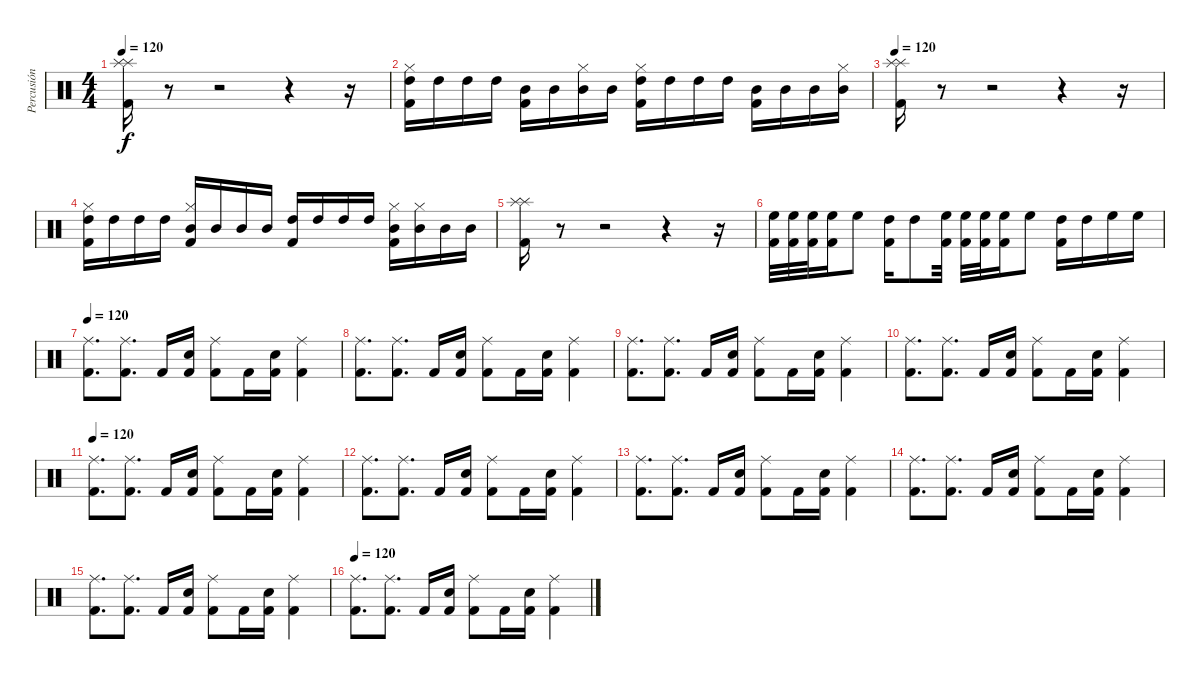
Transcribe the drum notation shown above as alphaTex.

\track ("Percusión" "Percusión") {instrument percussion}
\staff {score}
\articulation defaults
\ts (4 4)
\tempo 120
\clef neutral
\ks c
("Kick (hit) 2" "Splash (hit)" "Splash (hit)").16{dy f} r.8 r.2 r.4 r.16 |
("High Tom (hit)" "Kick (hit) 2" "Hi-Hat (closed)").16 "High Tom (hit)".16 "High Tom (hit)".16 "High Tom (hit)".16 ("Mid Tom (hit)" "Kick (hit) 2").16 "Mid Tom (hit)".16 ("Mid Tom (hit)" "Hi-Hat (closed)").16 "Mid Tom (hit)".16 ("High Tom (hit)" "Kick (hit) 2" "Hi-Hat (closed)").16 "High Tom (hit)".16 "High Tom (hit)".16 "High Tom (hit)".16 ("Mid Tom (hit)" "Kick (hit) 2").16 "Mid Tom (hit)".16 "Mid Tom (hit)".16 ("Mid Tom (hit)" "Hi-Hat (closed)").16 |
\tempo 120
("Kick (hit) 2" "Splash (hit)" "Splash (hit)").16 r.8 r.2 r.4 r.16 |
("High Tom (hit)" "Kick (hit) 2" "Hi-Hat (closed)").16 "High Tom (hit)".16 "High Tom (hit)".16 "High Tom (hit)".16 ("Mid Tom (hit)" "Hi-Hat (closed)" "Kick (hit) 2").16 "Mid Tom (hit)".16 "Mid Tom (hit)".16 "Mid Tom (hit)".16 ("High Tom (hit)" "Kick (hit) 2").16 "High Tom (hit)".16 "High Tom (hit)".16 "High Tom (hit)".16 ("Mid Tom (hit)" "Kick (hit) 2" "Hi-Hat (closed)").16 ("Mid Tom (hit)" "Hi-Hat (closed)").16 "Mid Tom (hit)".16 "Mid Tom (hit)".16 |
("Kick (hit) 2" "Splash (hit)" "Splash (hit)").16 r.8 r.2 r.4 r.16 |
("High Floor Tom (hit)" "Kick (hit) 2").32 ("High Floor Tom (hit)" "Kick (hit) 2").32 ("High Floor Tom (hit)" "Kick (hit) 2").32 ("High Floor Tom (hit)" "Kick (hit) 2").16 "High Floor Tom (hit)".8 ("High Tom (hit)" "Kick (hit) 2").16 "High Tom (hit)".8 ("High Floor Tom (hit)" "Kick (hit) 2").32 ("High Floor Tom (hit)" "Kick (hit) 2").32 ("High Floor Tom (hit)" "Kick (hit) 2").32 ("High Floor Tom (hit)" "Kick (hit) 2").16 "High Floor Tom (hit)".8 ("High Tom (hit)" "Kick (hit) 2").16 "High Tom (hit)".16 "High Floor Tom (hit)".16 "High Floor Tom (hit)".16 |
\tempo 120
("Kick (hit) 2" "Ride (middle)").8{d} ("Kick (hit) 2" "Ride (middle)").8{d} "Kick (hit) 2".16 ("Kick (hit) 2" "Snare (hit) 2").16 ("Kick (hit) 2" "Ride (middle)").8 "Kick (hit) 2".16 ("Kick (hit) 2" "Snare (hit) 2").16 ("Kick (hit) 2" "Ride (middle)").4 |
("Kick (hit) 2" "Ride (middle)").8{d} ("Kick (hit) 2" "Ride (middle)").8{d} "Kick (hit) 2".16 ("Kick (hit) 2" "Snare (hit) 2").16 ("Kick (hit) 2" "Ride (middle)").8 "Kick (hit) 2".16 ("Kick (hit) 2" "Snare (hit) 2").16 ("Kick (hit) 2" "Ride (middle)").4 |
("Kick (hit) 2" "Ride (middle)").8{d} ("Kick (hit) 2" "Ride (middle)").8{d} "Kick (hit) 2".16 ("Kick (hit) 2" "Snare (hit) 2").16 ("Kick (hit) 2" "Ride (middle)").8 "Kick (hit) 2".16 ("Kick (hit) 2" "Snare (hit) 2").16 ("Kick (hit) 2" "Ride (middle)").4 |
("Kick (hit) 2" "Ride (middle)").8{d} ("Kick (hit) 2" "Ride (middle)").8{d} "Kick (hit) 2".16 ("Kick (hit) 2" "Snare (hit) 2").16 ("Kick (hit) 2" "Ride (middle)").8 "Kick (hit) 2".16 ("Kick (hit) 2" "Snare (hit) 2").16 ("Kick (hit) 2" "Ride (middle)").4 |
\tempo 120
("Kick (hit) 2" "Ride (middle)").8{d} ("Kick (hit) 2" "Ride (middle)").8{d} "Kick (hit) 2".16 ("Kick (hit) 2" "Snare (hit) 2").16 ("Kick (hit) 2" "Ride (middle)").8 "Kick (hit) 2".16 ("Kick (hit) 2" "Snare (hit) 2").16 ("Kick (hit) 2" "Ride (middle)").4 |
("Kick (hit) 2" "Ride (middle)").8{d} ("Kick (hit) 2" "Ride (middle)").8{d} "Kick (hit) 2".16 ("Kick (hit) 2" "Snare (hit) 2").16 ("Kick (hit) 2" "Ride (middle)").8 "Kick (hit) 2".16 ("Kick (hit) 2" "Snare (hit) 2").16 ("Kick (hit) 2" "Ride (middle)").4 |
("Kick (hit) 2" "Ride (middle)").8{d} ("Kick (hit) 2" "Ride (middle)").8{d} "Kick (hit) 2".16 ("Kick (hit) 2" "Snare (hit) 2").16 ("Kick (hit) 2" "Ride (middle)").8 "Kick (hit) 2".16 ("Kick (hit) 2" "Snare (hit) 2").16 ("Kick (hit) 2" "Ride (middle)").4 |
("Kick (hit) 2" "Ride (middle)").8{d} ("Kick (hit) 2" "Ride (middle)").8{d} "Kick (hit) 2".16 ("Kick (hit) 2" "Snare (hit) 2").16 ("Kick (hit) 2" "Ride (middle)").8 "Kick (hit) 2".16 ("Kick (hit) 2" "Snare (hit) 2").16 ("Kick (hit) 2" "Ride (middle)").4 |
("Kick (hit) 2" "Ride (middle)").8{d} ("Kick (hit) 2" "Ride (middle)").8{d} "Kick (hit) 2".16 ("Kick (hit) 2" "Snare (hit) 2").16 ("Kick (hit) 2" "Ride (middle)").8 "Kick (hit) 2".16 ("Kick (hit) 2" "Snare (hit) 2").16 ("Kick (hit) 2" "Ride (middle)").4 |
\tempo 120
("Kick (hit) 2" "Ride (middle)").8{d} ("Kick (hit) 2" "Ride (middle)").8{d} "Kick (hit) 2".16 ("Kick (hit) 2" "Snare (hit) 2").16 ("Kick (hit) 2" "Ride (middle)").8 "Kick (hit) 2".16 ("Kick (hit) 2" "Snare (hit) 2").16 ("Kick (hit) 2" "Ride (middle)").4
